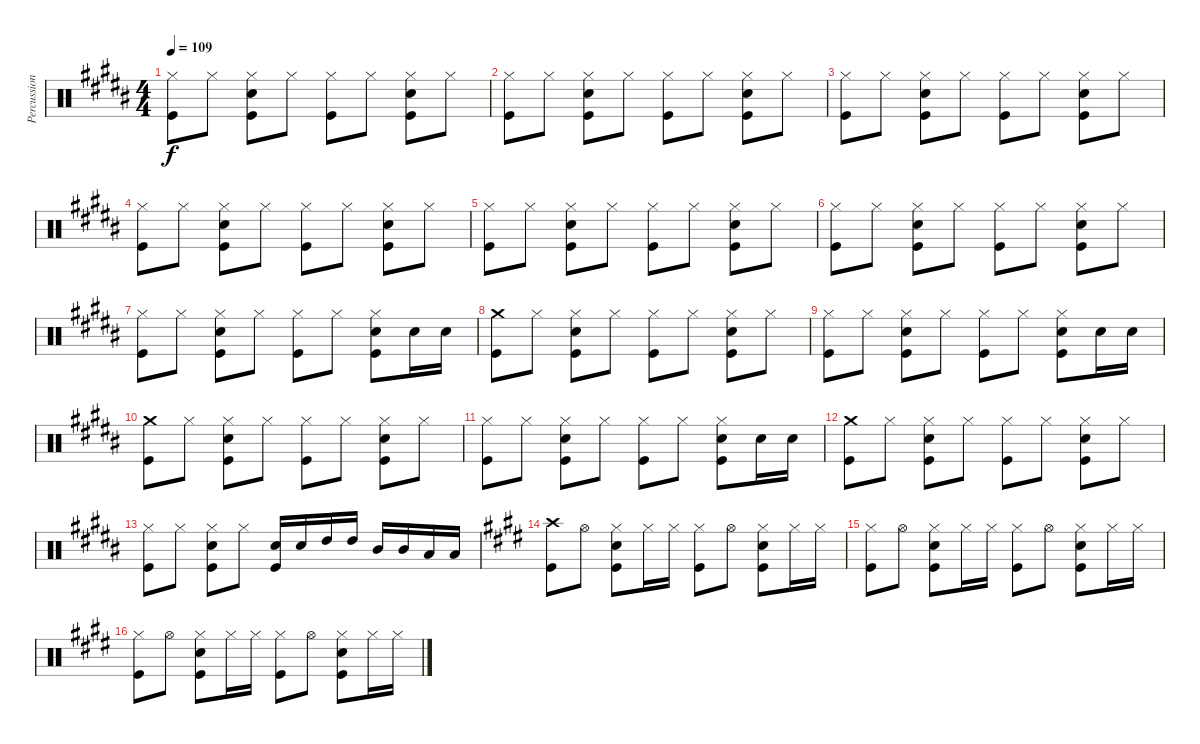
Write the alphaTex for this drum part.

\track ("Percussion" "Percussion") {instrument percussion}
\staff {score}
\articulation defaults
\ts (4 4)
\tempo 109
\clef neutral
\ks b
("Hi-Hat (closed)" "Kick (hit)").8{dy f} "Hi-Hat (closed)".8 ("Hi-Hat (closed)" "Snare (hit) 2" "Kick (hit)").8 "Hi-Hat (closed)".8 ("Hi-Hat (closed)" "Kick (hit)").8 "Hi-Hat (closed)".8 ("Hi-Hat (closed)" "Snare (hit) 2" "Kick (hit)").8 "Hi-Hat (closed)".8 |
("Hi-Hat (closed)" "Kick (hit)").8 "Hi-Hat (closed)".8 ("Hi-Hat (closed)" "Snare (hit) 2" "Kick (hit)").8 "Hi-Hat (closed)".8 ("Hi-Hat (closed)" "Kick (hit)").8 "Hi-Hat (closed)".8 ("Hi-Hat (closed)" "Snare (hit) 2" "Kick (hit)").8 "Hi-Hat (closed)".8 |
("Hi-Hat (closed)" "Kick (hit)").8 "Hi-Hat (closed)".8 ("Hi-Hat (closed)" "Snare (hit) 2" "Kick (hit)").8 "Hi-Hat (closed)".8 ("Hi-Hat (closed)" "Kick (hit)").8 "Hi-Hat (closed)".8 ("Hi-Hat (closed)" "Snare (hit) 2" "Kick (hit)").8 "Hi-Hat (closed)".8 |
("Hi-Hat (closed)" "Kick (hit)").8 "Hi-Hat (closed)".8 ("Hi-Hat (closed)" "Snare (hit) 2" "Kick (hit)").8 "Hi-Hat (closed)".8 ("Hi-Hat (closed)" "Kick (hit)").8 "Hi-Hat (closed)".8 ("Hi-Hat (closed)" "Snare (hit) 2" "Kick (hit)").8 "Hi-Hat (closed)".8 |
("Hi-Hat (closed)" "Kick (hit)").8 "Hi-Hat (closed)".8 ("Hi-Hat (closed)" "Snare (hit) 2" "Kick (hit)").8 "Hi-Hat (closed)".8 ("Hi-Hat (closed)" "Kick (hit)").8 "Hi-Hat (closed)".8 ("Hi-Hat (closed)" "Snare (hit) 2" "Kick (hit)").8 "Hi-Hat (closed)".8 |
("Hi-Hat (closed)" "Kick (hit)").8 "Hi-Hat (closed)".8 ("Hi-Hat (closed)" "Snare (hit) 2" "Kick (hit)").8 "Hi-Hat (closed)".8 ("Hi-Hat (closed)" "Kick (hit)").8 "Hi-Hat (closed)".8 ("Hi-Hat (closed)" "Snare (hit) 2" "Kick (hit)").8 "Hi-Hat (closed)".8 |
("Hi-Hat (closed)" "Kick (hit)").8 "Hi-Hat (closed)".8 ("Hi-Hat (closed)" "Snare (hit) 2" "Kick (hit)").8 "Hi-Hat (closed)".8 ("Hi-Hat (closed)" "Kick (hit)").8 "Hi-Hat (closed)".8 ("Hi-Hat (closed)" "Snare (hit) 2" "Kick (hit)").8 "Snare (hit) 2".16 "Snare (hit) 2".16 |
("Crash medium (hit)" "Kick (hit)").8 "Hi-Hat (closed)".8 ("Hi-Hat (closed)" "Snare (hit) 2" "Kick (hit)").8 "Hi-Hat (closed)".8 ("Hi-Hat (closed)" "Kick (hit)").8 "Hi-Hat (closed)".8 ("Hi-Hat (closed)" "Snare (hit) 2" "Kick (hit)").8 "Hi-Hat (closed)".8 |
("Hi-Hat (closed)" "Kick (hit)").8 "Hi-Hat (closed)".8 ("Hi-Hat (closed)" "Snare (hit) 2" "Kick (hit)").8 "Hi-Hat (closed)".8 ("Hi-Hat (closed)" "Kick (hit)").8 "Hi-Hat (closed)".8 ("Hi-Hat (closed)" "Snare (hit) 2" "Kick (hit)").8 "Snare (hit) 2".16 "Snare (hit) 2".16 |
("Crash medium (hit)" "Kick (hit)").8 "Hi-Hat (closed)".8 ("Hi-Hat (closed)" "Snare (hit) 2" "Kick (hit)").8 "Hi-Hat (closed)".8 ("Hi-Hat (closed)" "Kick (hit)").8 "Hi-Hat (closed)".8 ("Hi-Hat (closed)" "Snare (hit) 2" "Kick (hit)").8 "Hi-Hat (closed)".8 |
("Hi-Hat (closed)" "Kick (hit)").8 "Hi-Hat (closed)".8 ("Hi-Hat (closed)" "Snare (hit) 2" "Kick (hit)").8 "Hi-Hat (closed)".8 ("Hi-Hat (closed)" "Kick (hit)").8 "Hi-Hat (closed)".8 ("Hi-Hat (closed)" "Snare (hit) 2" "Kick (hit)").8 "Snare (hit) 2".16 "Snare (hit) 2".16 |
("Crash medium (hit)" "Kick (hit)").8 "Hi-Hat (closed)".8 ("Hi-Hat (closed)" "Snare (hit) 2" "Kick (hit)").8 "Hi-Hat (closed)".8 ("Hi-Hat (closed)" "Kick (hit)").8 "Hi-Hat (closed)".8 ("Hi-Hat (closed)" "Snare (hit) 2" "Kick (hit)").8 "Hi-Hat (closed)".8 |
("Hi-Hat (closed)" "Kick (hit)").8 "Hi-Hat (closed)".8 ("Hi-Hat (closed)" "Snare (hit) 2" "Kick (hit)").8 "Hi-Hat (closed)".8 ("Snare (hit) 2" "Kick (hit)").16 "Snare (hit) 2".16 "High Tom (hit)".16 "High Tom (hit)".16 "Mid Tom (hit)".16 "Mid Tom (hit)".16 "Low Tom (hit)".16 "Low Tom (hit)".16 |
\ks e
("Crash high (hit)" "Kick (hit)").8 "Hi-Hat (open)".8 ("Hi-Hat (closed)" "Snare (hit) 2" "Kick (hit)").8 "Hi-Hat (closed)".16 "Hi-Hat (closed)".16 ("Hi-Hat (closed)" "Kick (hit)").8 "Hi-Hat (open)".8 ("Hi-Hat (closed)" "Snare (hit) 2" "Kick (hit)").8 "Hi-Hat (closed)".16 "Hi-Hat (closed)".16 |
("Hi-Hat (closed)" "Kick (hit)").8 "Hi-Hat (open)".8 ("Hi-Hat (closed)" "Snare (hit) 2" "Kick (hit)").8 "Hi-Hat (closed)".16 "Hi-Hat (closed)".16 ("Hi-Hat (closed)" "Kick (hit)").8 "Hi-Hat (open)".8 ("Hi-Hat (closed)" "Snare (hit) 2" "Kick (hit)").8 "Hi-Hat (closed)".16 "Hi-Hat (closed)".16 |
("Hi-Hat (closed)" "Kick (hit)").8 "Hi-Hat (open)".8 ("Hi-Hat (closed)" "Snare (hit) 2" "Kick (hit)").8 "Hi-Hat (closed)".16 "Hi-Hat (closed)".16 ("Hi-Hat (closed)" "Kick (hit)").8 "Hi-Hat (open)".8 ("Hi-Hat (closed)" "Snare (hit) 2" "Kick (hit)").8 "Hi-Hat (closed)".16 "Hi-Hat (closed)".16
